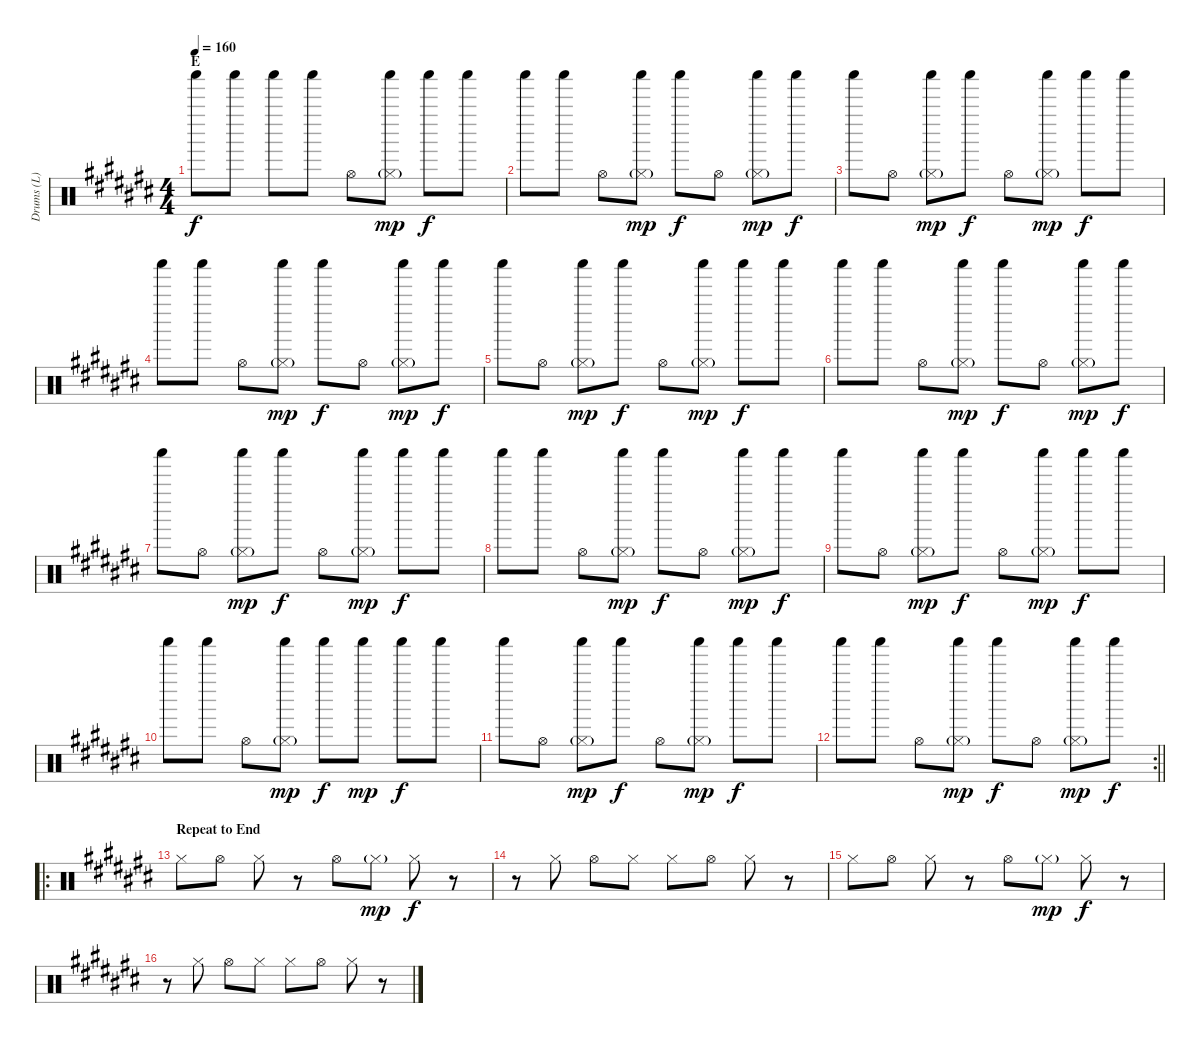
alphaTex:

\track ("Drums (L)" "Drums (L)") {instrument percussion}
\staff {score}
\articulation defaults
\ts (4 4)
\section ("" "E")
\tempo 160
\clef neutral
\ks c# "Shaker (hit)".8{dy f} "Shaker (hit)".8 "Shaker (hit)".8 "Shaker (hit)".8 "Hi-Hat (open)".8
("Shaker (hit)" "Hi-Hat (closed)"{g}).8{dy mp} "Shaker (hit)".8{dy f} "Shaker (hit)".8 |
"Shaker (hit)".8 "Shaker (hit)".8 "Hi-Hat (open)".8 ("Shaker (hit)" "Hi-Hat (closed)"{g}).8{dy mp} "Shaker (hit)".8{dy f} "Hi-Hat (open)".8 ("Shaker (hit)" "Hi-Hat (closed)"{g}).8{dy mp} "Shaker (hit)".8{dy f} |
"Shaker (hit)".8 "Hi-Hat (open)".8 ("Shaker (hit)" "Hi-Hat (closed)"{g}).8{dy mp} "Shaker (hit)".8{dy f} "Hi-Hat (open)".8 ("Shaker (hit)" "Hi-Hat (closed)"{g}).8{dy mp} "Shaker (hit)".8{dy f} "Shaker (hit)".8 |
"Shaker (hit)".8 "Shaker (hit)".8 "Hi-Hat (open)".8 ("Shaker (hit)" "Hi-Hat (closed)"{g}).8{dy mp} "Shaker (hit)".8{dy f} "Hi-Hat (open)".8 ("Shaker (hit)" "Hi-Hat (closed)"{g}).8{dy mp} "Shaker (hit)".8{dy f} |
"Shaker (hit)".8 "Hi-Hat (open)".8 ("Shaker (hit)" "Hi-Hat (closed)"{g}).8{dy mp} "Shaker (hit)".8{dy f} "Hi-Hat (open)".8 ("Shaker (hit)" "Hi-Hat (closed)"{g}).8{dy mp} "Shaker (hit)".8{dy f} "Shaker (hit)".8 |
"Shaker (hit)".8 "Shaker (hit)".8 "Hi-Hat (open)".8 ("Shaker (hit)" "Hi-Hat (closed)"{g}).8{dy mp} "Shaker (hit)".8{dy f} "Hi-Hat (open)".8 ("Shaker (hit)" "Hi-Hat (closed)"{g}).8{dy mp} "Shaker (hit)".8{dy f} |
"Shaker (hit)".8 "Hi-Hat (open)".8 ("Shaker (hit)" "Hi-Hat (closed)"{g}).8{dy mp} "Shaker (hit)".8{dy f} "Hi-Hat (open)".8 ("Shaker (hit)" "Hi-Hat (closed)"{g}).8{dy mp} "Shaker (hit)".8{dy f} "Shaker (hit)".8 |
"Shaker (hit)".8 "Shaker (hit)".8 "Hi-Hat (open)".8 ("Shaker (hit)" "Hi-Hat (closed)"{g}).8{dy mp} "Shaker (hit)".8{dy f} "Hi-Hat (open)".8 ("Shaker (hit)" "Hi-Hat (closed)"{g}).8{dy mp} "Shaker (hit)".8{dy f} |
"Shaker (hit)".8 "Hi-Hat (open)".8 ("Shaker (hit)" "Hi-Hat (closed)"{g}).8{dy mp} "Shaker (hit)".8{dy f} "Hi-Hat (open)".8 ("Shaker (hit)" "Hi-Hat (closed)"{g}).8{dy mp} "Shaker (hit)".8{dy f} "Shaker (hit)".8 |
"Shaker (hit)".8 "Shaker (hit)".8 "Hi-Hat (open)".8 ("Shaker (hit)" "Hi-Hat (closed)"{g}).8{dy mp} "Shaker (hit)".8{dy f} "Shaker (hit)".8{dy mp} "Shaker (hit)".8{dy f} "Shaker (hit)".8 |
"Shaker (hit)".8 "Hi-Hat (open)".8 ("Shaker (hit)" "Hi-Hat (closed)"{g}).8{dy mp} "Shaker (hit)".8{dy f} "Hi-Hat (open)".8 ("Shaker (hit)" "Hi-Hat (closed)"{g}).8{dy mp} "Shaker (hit)".8{dy f} "Shaker (hit)".8 |
\rc 2
\barLineRight lightlight "Shaker (hit)".8 "Shaker (hit)".8 "Hi-Hat (open)".8
("Shaker (hit)" "Hi-Hat (closed)"{g}).8{dy mp} "Shaker (hit)".8{dy f} "Hi-Hat (open)".8 ("Shaker (hit)" "Hi-Hat (closed)"{g}).8{dy mp} "Shaker (hit)".8{dy f} |
\ro
\section ("" "Repeat to End")
"Hi-Hat (closed)".8 "Hi-Hat (open)".8 "Hi-Hat (closed)".8 r.8 "Hi-Hat (open)".8 "Hi-Hat (closed)"{g}.8{dy mp} "Hi-Hat (closed)".8{dy f} r.8 |
r.8 "Hi-Hat (closed)".8 "Hi-Hat (open)".8 "Hi-Hat (closed)".8 "Hi-Hat (closed)".8 "Hi-Hat (open)".8 "Hi-Hat (closed)".8 r.8 |
"Hi-Hat (closed)".8 "Hi-Hat (open)".8 "Hi-Hat (closed)".8 r.8 "Hi-Hat (open)".8 "Hi-Hat (closed)"{g}.8{dy mp} "Hi-Hat (closed)".8{dy f} r.8 |
r.8 "Hi-Hat (closed)".8 "Hi-Hat (open)".8 "Hi-Hat (closed)".8 "Hi-Hat (closed)".8 "Hi-Hat (open)".8 "Hi-Hat (closed)".8 r.8
